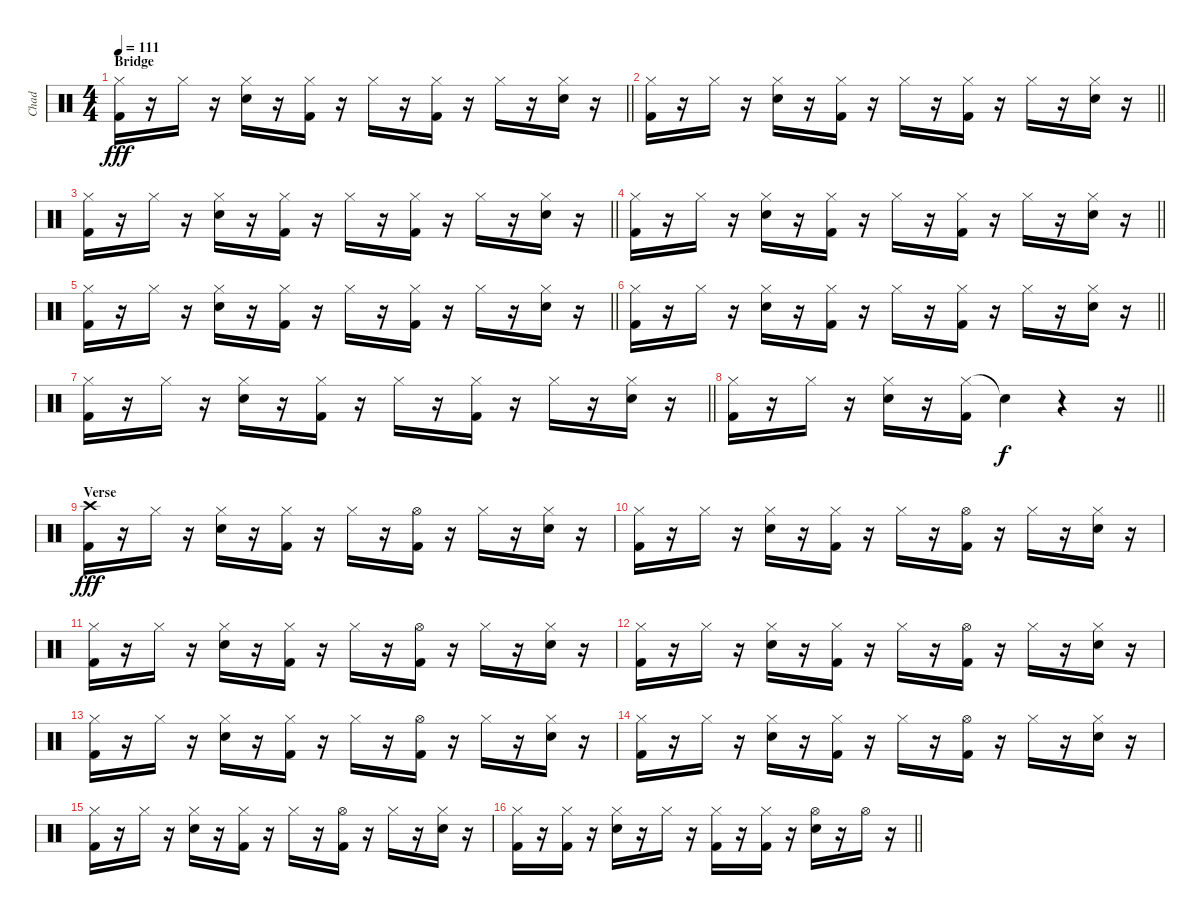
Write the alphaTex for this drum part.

\track ("Chad" "Chad") {instrument percussion}
\staff {score}
\articulation defaults
\ts (4 4)
\section ("" "Bridge")
\tempo 111
\clef neutral
\barLineRight lightlight
\ks c
("Hi-Hat (closed)" "Kick (hit) 2").16{dy fff} r.16 "Hi-Hat (closed)".16 r.16 ("Hi-Hat (closed)" "Electric Snare (hit)").16 r.16 ("Hi-Hat (closed)" "Kick (hit) 2").16 r.16 "Hi-Hat (closed)".16 r.16 ("Hi-Hat (closed)" "Kick (hit) 2").16 r.16 "Hi-Hat (closed)".16 r.16 ("Hi-Hat (closed)" "Electric Snare (hit)").16 r.16 |
\barLineRight lightlight
("Hi-Hat (closed)" "Kick (hit) 2").16 r.16 "Hi-Hat (closed)".16 r.16 ("Hi-Hat (closed)" "Electric Snare (hit)").16 r.16 ("Hi-Hat (closed)" "Kick (hit) 2").16 r.16 "Hi-Hat (closed)".16 r.16 ("Hi-Hat (closed)" "Kick (hit) 2").16 r.16 "Hi-Hat (closed)".16 r.16 ("Hi-Hat (closed)" "Electric Snare (hit)").16 r.16 |
\barLineRight lightlight
("Hi-Hat (closed)" "Kick (hit) 2").16 r.16 "Hi-Hat (closed)".16 r.16 ("Hi-Hat (closed)" "Electric Snare (hit)").16 r.16 ("Hi-Hat (closed)" "Kick (hit) 2").16 r.16 "Hi-Hat (closed)".16 r.16 ("Hi-Hat (closed)" "Kick (hit) 2").16 r.16 "Hi-Hat (closed)".16 r.16 ("Hi-Hat (closed)" "Electric Snare (hit)").16 r.16 |
\barLineRight lightlight
("Hi-Hat (closed)" "Kick (hit) 2").16 r.16 "Hi-Hat (closed)".16 r.16 ("Hi-Hat (closed)" "Electric Snare (hit)").16 r.16 ("Hi-Hat (closed)" "Kick (hit) 2").16 r.16 "Hi-Hat (closed)".16 r.16 ("Hi-Hat (closed)" "Kick (hit) 2").16 r.16 "Hi-Hat (closed)".16 r.16 ("Hi-Hat (closed)" "Electric Snare (hit)").16 r.16 |
\barLineRight lightlight
("Hi-Hat (closed)" "Kick (hit) 2").16 r.16 "Hi-Hat (closed)".16 r.16 ("Hi-Hat (closed)" "Electric Snare (hit)").16 r.16 ("Hi-Hat (closed)" "Kick (hit) 2").16 r.16 "Hi-Hat (closed)".16 r.16 ("Hi-Hat (closed)" "Kick (hit) 2").16 r.16 "Hi-Hat (closed)".16 r.16 ("Hi-Hat (closed)" "Electric Snare (hit)").16 r.16 |
\barLineRight lightlight
("Hi-Hat (closed)" "Kick (hit) 2").16 r.16 "Hi-Hat (closed)".16 r.16 ("Hi-Hat (closed)" "Electric Snare (hit)").16 r.16 ("Hi-Hat (closed)" "Kick (hit) 2").16 r.16 "Hi-Hat (closed)".16 r.16 ("Hi-Hat (closed)" "Kick (hit) 2").16 r.16 "Hi-Hat (closed)".16 r.16 ("Hi-Hat (closed)" "Electric Snare (hit)").16 r.16 |
\barLineRight lightlight
("Hi-Hat (closed)" "Kick (hit) 2").16 r.16 "Hi-Hat (closed)".16 r.16 ("Hi-Hat (closed)" "Electric Snare (hit)").16 r.16 ("Hi-Hat (closed)" "Kick (hit) 2").16 r.16 "Hi-Hat (closed)".16 r.16 ("Hi-Hat (closed)" "Kick (hit) 2").16 r.16 "Hi-Hat (closed)".16 r.16 ("Hi-Hat (closed)" "Electric Snare (hit)").16 r.16 |
\barLineRight lightlight
("Hi-Hat (closed)" "Kick (hit) 2").16 r.16 "Hi-Hat (closed)".16 r.16 ("Hi-Hat (closed)" "Electric Snare (hit)").16 r.16 ("Hi-Hat (closed)" "Kick (hit) 2").16 "Snare (hit)"{t}.4{dy f} r.4 r.16 |
\section ("" "Verse")
("Crash high (hit)" "Kick (hit) 2").16{dy fff} r.16 "Hi-Hat (closed)".16 r.16 ("Hi-Hat (closed)" "Electric Snare (hit)").16 r.16 ("Hi-Hat (closed)" "Kick (hit) 2").16 r.16 "Hi-Hat (closed)".16 r.16 ("Hi-Hat (open)" "Kick (hit) 2").16 r.16 "Hi-Hat (closed)".16 r.16 ("Hi-Hat (closed)" "Electric Snare (hit)").16 r.16 |
("Hi-Hat (closed)" "Kick (hit) 2").16 r.16 "Hi-Hat (closed)".16 r.16 ("Hi-Hat (closed)" "Electric Snare (hit)").16 r.16 ("Hi-Hat (closed)" "Kick (hit) 2").16 r.16 "Hi-Hat (closed)".16 r.16 ("Hi-Hat (open)" "Kick (hit) 2").16 r.16 "Hi-Hat (closed)".16 r.16 ("Hi-Hat (closed)" "Electric Snare (hit)").16 r.16 |
("Hi-Hat (closed)" "Kick (hit) 2").16 r.16 "Hi-Hat (closed)".16 r.16 ("Hi-Hat (closed)" "Electric Snare (hit)").16 r.16 ("Hi-Hat (closed)" "Kick (hit) 2").16 r.16 "Hi-Hat (closed)".16 r.16 ("Hi-Hat (open)" "Kick (hit) 2").16 r.16 "Hi-Hat (closed)".16 r.16 ("Hi-Hat (closed)" "Electric Snare (hit)").16 r.16 |
("Hi-Hat (closed)" "Kick (hit) 2").16 r.16 "Hi-Hat (closed)".16 r.16 ("Hi-Hat (closed)" "Electric Snare (hit)").16 r.16 ("Hi-Hat (closed)" "Kick (hit) 2").16 r.16 "Hi-Hat (closed)".16 r.16 ("Hi-Hat (open)" "Kick (hit) 2").16 r.16 "Hi-Hat (closed)".16 r.16 ("Hi-Hat (closed)" "Electric Snare (hit)").16 r.16 |
("Hi-Hat (closed)" "Kick (hit) 2").16 r.16 "Hi-Hat (closed)".16 r.16 ("Hi-Hat (closed)" "Electric Snare (hit)").16 r.16 ("Hi-Hat (closed)" "Kick (hit) 2").16 r.16 "Hi-Hat (closed)".16 r.16 ("Hi-Hat (open)" "Kick (hit) 2").16 r.16 "Hi-Hat (closed)".16 r.16 ("Hi-Hat (closed)" "Electric Snare (hit)").16 r.16 |
("Hi-Hat (closed)" "Kick (hit) 2").16 r.16 "Hi-Hat (closed)".16 r.16 ("Hi-Hat (closed)" "Electric Snare (hit)").16 r.16 ("Hi-Hat (closed)" "Kick (hit) 2").16 r.16 "Hi-Hat (closed)".16 r.16 ("Hi-Hat (open)" "Kick (hit) 2").16 r.16 "Hi-Hat (closed)".16 r.16 ("Hi-Hat (closed)" "Electric Snare (hit)").16 r.16 |
("Hi-Hat (closed)" "Kick (hit) 2").16 r.16 "Hi-Hat (closed)".16 r.16 ("Hi-Hat (closed)" "Electric Snare (hit)").16 r.16 ("Hi-Hat (closed)" "Kick (hit) 2").16 r.16 "Hi-Hat (closed)".16 r.16 ("Hi-Hat (open)" "Kick (hit) 2").16 r.16 "Hi-Hat (closed)".16 r.16 ("Hi-Hat (closed)" "Electric Snare (hit)").16 r.16 |
\barLineRight lightlight
("Hi-Hat (closed)" "Kick (hit) 2").16 r.16 ("Hi-Hat (closed)" "Kick (hit) 2").16 r.16 ("Hi-Hat (closed)" "Electric Snare (hit)").16 r.16 "Hi-Hat (closed)".16 r.16 ("Hi-Hat (closed)" "Kick (hit) 2").16 r.16 ("Hi-Hat (closed)" "Kick (hit) 2").16 r.16 ("Hi-Hat (open)" "Electric Snare (hit)").16 r.16 "Hi-Hat (open)".16 r.16
